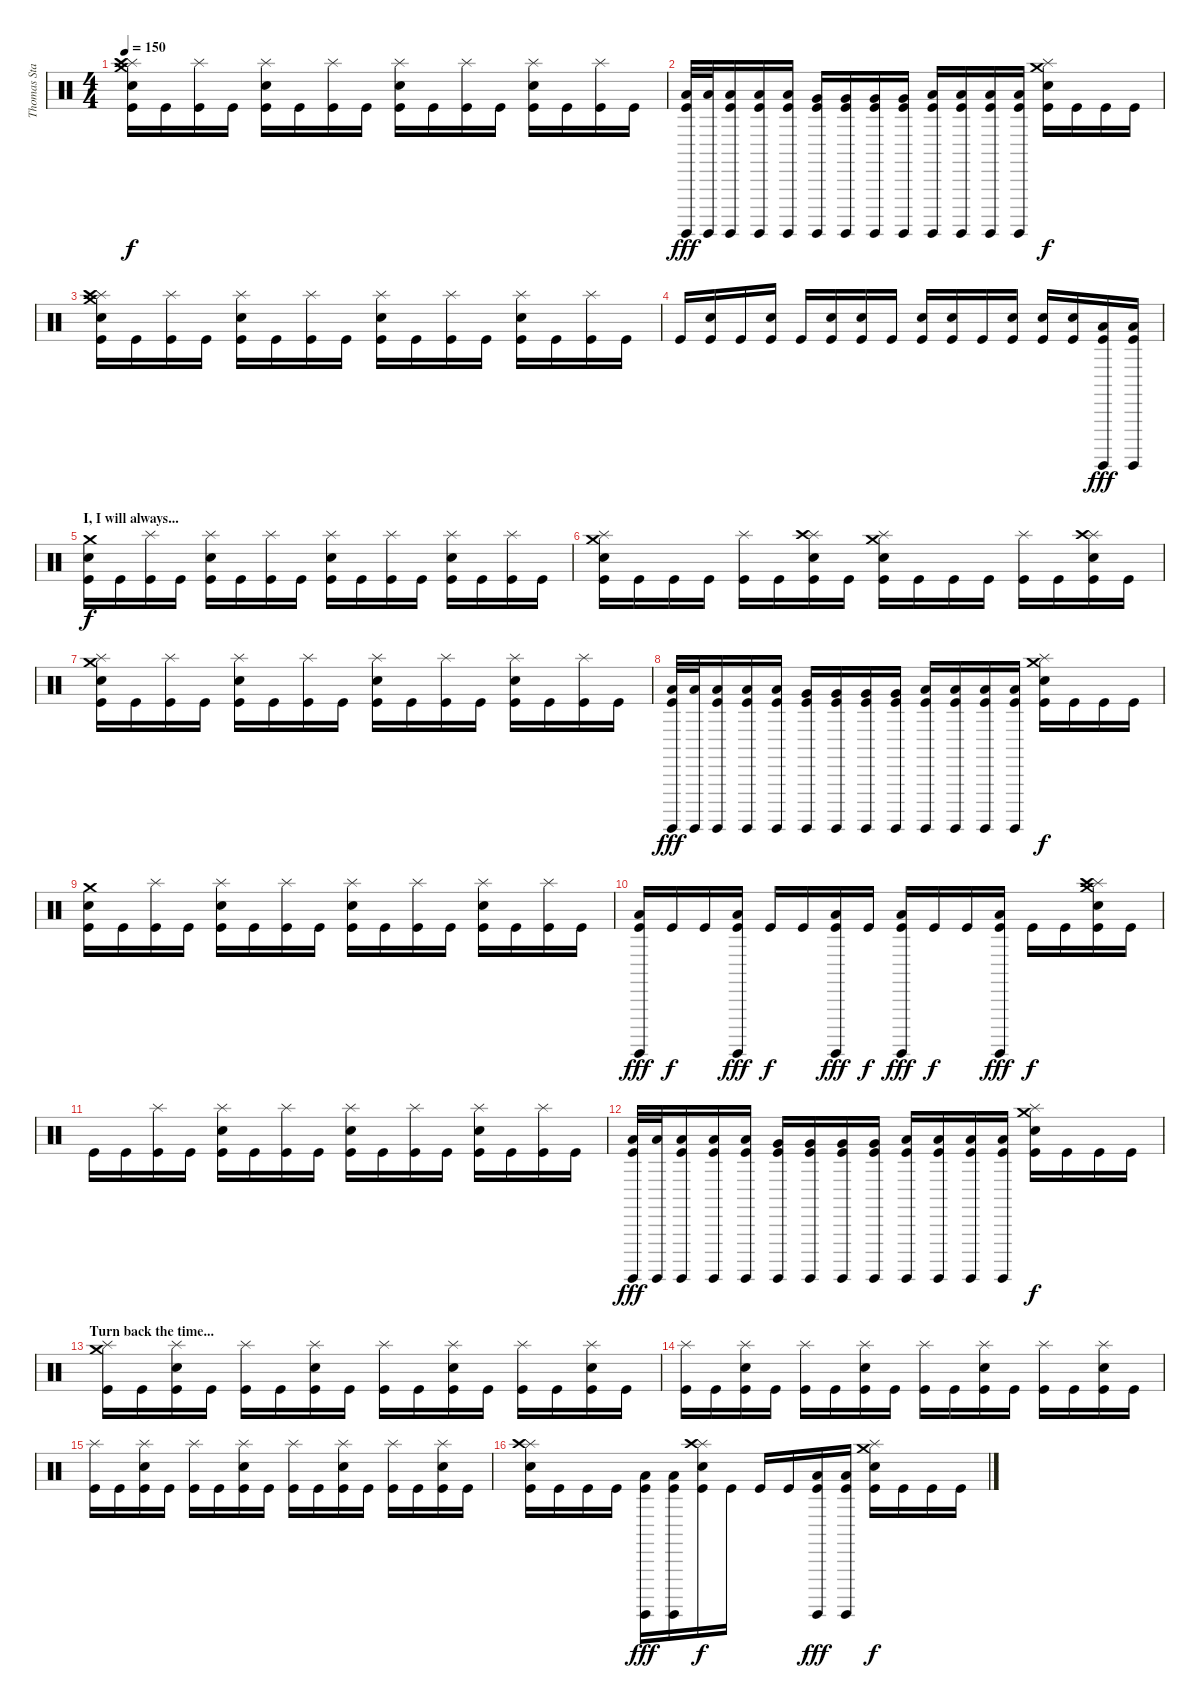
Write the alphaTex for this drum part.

\track ("Thomas Stauch" "Thomas Sta") {instrument percussion}
\staff {score}
\articulation defaults
\ts (4 4)
\tempo 150
\clef neutral
\ks c
("Crash medium (hit)" "Splash (hit)" "Crash high (hit)" "Electric Snare (hit)" "Kick (hit)").16{dy f} "Kick (hit)".16 ("Splash (hit)" "Kick (hit)").16 "Kick (hit)".16 ("Splash (hit)" "Electric Snare (hit)" "Kick (hit)").16 "Kick (hit)".16 ("Splash (hit)" "Kick (hit)").16 "Kick (hit)".16 ("Splash (hit)" "Electric Snare (hit)" "Kick (hit)").16 "Kick (hit)".16 ("Splash (hit)" "Kick (hit)").16 "Kick (hit)".16 ("Splash (hit)" "Electric Snare (hit)" "Kick (hit)").16 "Kick (hit)".16 ("Splash (hit)" "Kick (hit)").16 "Kick (hit)".16 |
("Surdo (hit)" "Low Tom (hit)" "Kick (hit)").32{dy fff} ("Surdo (hit)" "Low Tom (hit)").32 ("Surdo (hit)" "Low Tom (hit)" "Kick (hit)").16 ("Surdo (hit)" "Low Tom (hit)" "Kick (hit)").16 ("Surdo (hit)" "Low Tom (hit)" "Kick (hit)").16 ("Surdo (hit)" "Very Low Tom (hit)" "Kick (hit)").16 ("Surdo (hit)" "Very Low Tom (hit)" "Kick (hit)").16 ("Surdo (hit)" "Very Low Tom (hit)" "Kick (hit)").16 ("Surdo (hit)" "Very Low Tom (hit)" "Kick (hit)").16 ("Surdo (hit)" "Low Floor Tom (hit)" "Kick (hit)").16 ("Surdo (hit)" "Low Floor Tom (hit)" "Kick (hit)").16 ("Surdo (hit)" "Low Floor Tom (hit)" "Kick (hit)").16 ("Surdo (hit)" "Low Floor Tom (hit)" "Kick (hit)").16 ("Crash medium (hit)" "Splash (hit)" "Electric Snare (hit)" "Kick (hit)").16{dy f} "Kick (hit)".16 "Kick (hit)".16 "Kick (hit)".16 |
("Crash medium (hit)" "Splash (hit)" "Crash high (hit)" "Electric Snare (hit)" "Kick (hit)").16 "Kick (hit)".16 ("Splash (hit)" "Kick (hit)").16 "Kick (hit)".16 ("Splash (hit)" "Electric Snare (hit)" "Kick (hit)").16 "Kick (hit)".16 ("Splash (hit)" "Kick (hit)").16 "Kick (hit)".16 ("Splash (hit)" "Electric Snare (hit)" "Kick (hit)").16 "Kick (hit)".16 ("Splash (hit)" "Kick (hit)").16 "Kick (hit)".16 ("Splash (hit)" "Electric Snare (hit)" "Kick (hit)").16 "Kick (hit)".16 ("Splash (hit)" "Kick (hit)").16 "Kick (hit)".16 |
"Kick (hit)".16 ("Electric Snare (hit)" "Kick (hit)").16 "Kick (hit)".16 ("Electric Snare (hit)" "Kick (hit)").16 "Kick (hit)".16 ("Electric Snare (hit)" "Kick (hit)").16 ("Electric Snare (hit)" "Kick (hit)").16 "Kick (hit)".16 ("Electric Snare (hit)" "Kick (hit)").16 ("Electric Snare (hit)" "Kick (hit)").16 "Kick (hit)".16 ("Electric Snare (hit)" "Kick (hit)").16 ("Electric Snare (hit)" "Kick (hit)").16 ("Electric Snare (hit)" "Kick (hit)").16 ("Surdo (hit)" "Low Floor Tom (hit)" "Kick (hit)").16{dy fff} ("Surdo (hit)" "Low Floor Tom (hit)" "Kick (hit)").16 |
\section ("" "I, I will always...")
("Crash medium (hit)" "Electric Snare (hit)" "Kick (hit)").16{dy f} "Kick (hit)".16 ("Splash (hit)" "Kick (hit)").16 "Kick (hit)".16 ("Splash (hit)" "Electric Snare (hit)" "Kick (hit)").16 "Kick (hit)".16 ("Splash (hit)" "Kick (hit)").16 "Kick (hit)".16 ("Splash (hit)" "Electric Snare (hit)" "Kick (hit)").16 "Kick (hit)".16 ("Splash (hit)" "Kick (hit)").16 "Kick (hit)".16 ("Splash (hit)" "Electric Snare (hit)" "Kick (hit)").16 "Kick (hit)".16 ("Splash (hit)" "Kick (hit)").16 "Kick (hit)".16 |
("Crash medium (hit)" "Splash (hit)" "Electric Snare (hit)" "Kick (hit)").16 "Kick (hit)".16 "Kick (hit)".16 "Kick (hit)".16 ("Splash (hit)" "Kick (hit)").16 "Kick (hit)".16 ("Splash (hit)" "Crash high (hit)" "Electric Snare (hit)" "Kick (hit)").16 "Kick (hit)".16 ("Crash medium (hit)" "Splash (hit)" "Electric Snare (hit)" "Kick (hit)").16 "Kick (hit)".16 "Kick (hit)".16 "Kick (hit)".16 ("Splash (hit)" "Kick (hit)").16 "Kick (hit)".16 ("Splash (hit)" "Crash high (hit)" "Electric Snare (hit)" "Kick (hit)").16 "Kick (hit)".16 |
("Crash medium (hit)" "Splash (hit)" "Electric Snare (hit)" "Kick (hit)").16 "Kick (hit)".16 ("Splash (hit)" "Kick (hit)").16 "Kick (hit)".16 ("Splash (hit)" "Electric Snare (hit)" "Kick (hit)").16 "Kick (hit)".16 ("Splash (hit)" "Kick (hit)").16 "Kick (hit)".16 ("Splash (hit)" "Electric Snare (hit)" "Kick (hit)").16 "Kick (hit)".16 ("Splash (hit)" "Kick (hit)").16 "Kick (hit)".16 ("Splash (hit)" "Electric Snare (hit)" "Kick (hit)").16 "Kick (hit)".16 ("Splash (hit)" "Kick (hit)").16 "Kick (hit)".16 |
("Surdo (hit)" "Low Tom (hit)" "Kick (hit)").32{dy fff} ("Surdo (hit)" "Low Tom (hit)").32 ("Surdo (hit)" "Low Tom (hit)" "Kick (hit)").16 ("Surdo (hit)" "Low Tom (hit)" "Kick (hit)").16 ("Surdo (hit)" "Low Tom (hit)" "Kick (hit)").16 ("Surdo (hit)" "Very Low Tom (hit)" "Kick (hit)").16 ("Surdo (hit)" "Very Low Tom (hit)" "Kick (hit)").16 ("Surdo (hit)" "Very Low Tom (hit)" "Kick (hit)").16 ("Surdo (hit)" "Very Low Tom (hit)" "Kick (hit)").16 ("Surdo (hit)" "Low Floor Tom (hit)" "Kick (hit)").16 ("Surdo (hit)" "Low Floor Tom (hit)" "Kick (hit)").16 ("Surdo (hit)" "Low Floor Tom (hit)" "Kick (hit)").16 ("Surdo (hit)" "Low Floor Tom (hit)" "Kick (hit)").16 ("Crash medium (hit)" "Splash (hit)" "Electric Snare (hit)" "Kick (hit)").16{dy f} "Kick (hit)".16 "Kick (hit)".16 "Kick (hit)".16 |
("Crash medium (hit)" "Electric Snare (hit)" "Kick (hit)").16 "Kick (hit)".16 ("Splash (hit)" "Kick (hit)").16 "Kick (hit)".16 ("Splash (hit)" "Electric Snare (hit)" "Kick (hit)").16 "Kick (hit)".16 ("Splash (hit)" "Kick (hit)").16 "Kick (hit)".16 ("Splash (hit)" "Electric Snare (hit)" "Kick (hit)").16 "Kick (hit)".16 ("Splash (hit)" "Kick (hit)").16 "Kick (hit)".16 ("Splash (hit)" "Electric Snare (hit)" "Kick (hit)").16 "Kick (hit)".16 ("Splash (hit)" "Kick (hit)").16 "Kick (hit)".16 |
("Surdo (hit)" "Low Floor Tom (hit)" "Kick (hit)").16{dy fff} "Kick (hit)".16{dy f} "Kick (hit)".16 ("Surdo (hit)" "Low Floor Tom (hit)" "Kick (hit)").16{dy fff} "Kick (hit)".16{dy f} "Kick (hit)".16 ("Surdo (hit)" "Low Floor Tom (hit)" "Kick (hit)").16{dy fff} "Kick (hit)".16{dy f} ("Surdo (hit)" "Low Floor Tom (hit)" "Kick (hit)").16{dy fff} "Kick (hit)".16{dy f} "Kick (hit)".16 ("Surdo (hit)" "Low Floor Tom (hit)" "Kick (hit)").16{dy fff} "Kick (hit)".16{dy f} "Kick (hit)".16 ("Crash medium (hit)" "Splash (hit)" "Crash high (hit)" "Electric Snare (hit)" "Kick (hit)").16 "Kick (hit)".16 |
"Kick (hit)".16 "Kick (hit)".16 ("Splash (hit)" "Kick (hit)").16 "Kick (hit)".16 ("Splash (hit)" "Electric Snare (hit)" "Kick (hit)").16 "Kick (hit)".16 ("Splash (hit)" "Kick (hit)").16 "Kick (hit)".16 ("Splash (hit)" "Electric Snare (hit)" "Kick (hit)").16 "Kick (hit)".16 ("Splash (hit)" "Kick (hit)").16 "Kick (hit)".16 ("Splash (hit)" "Electric Snare (hit)" "Kick (hit)").16 "Kick (hit)".16 ("Splash (hit)" "Kick (hit)").16 "Kick (hit)".16 |
("Surdo (hit)" "Low Tom (hit)" "Kick (hit)").32{dy fff} ("Surdo (hit)" "Low Tom (hit)").32 ("Surdo (hit)" "Low Tom (hit)" "Kick (hit)").16 ("Surdo (hit)" "Low Tom (hit)" "Kick (hit)").16 ("Surdo (hit)" "Low Tom (hit)" "Kick (hit)").16 ("Surdo (hit)" "Very Low Tom (hit)" "Kick (hit)").16 ("Surdo (hit)" "Very Low Tom (hit)" "Kick (hit)").16 ("Surdo (hit)" "Very Low Tom (hit)" "Kick (hit)").16 ("Surdo (hit)" "Very Low Tom (hit)" "Kick (hit)").16 ("Surdo (hit)" "Low Floor Tom (hit)" "Kick (hit)").16 ("Surdo (hit)" "Low Floor Tom (hit)" "Kick (hit)").16 ("Surdo (hit)" "Low Floor Tom (hit)" "Kick (hit)").16 ("Surdo (hit)" "Low Floor Tom (hit)" "Kick (hit)").16 ("Crash medium (hit)" "Splash (hit)" "Electric Snare (hit)" "Kick (hit)").16{dy f} "Kick (hit)".16 "Kick (hit)".16 "Kick (hit)".16 |
\section ("" "Turn back the time...")
("Crash medium (hit)" "Splash (hit)" "Kick (hit)").16 "Kick (hit)".16 ("Splash (hit)" "Electric Snare (hit)" "Kick (hit)").16 "Kick (hit)".16 ("Splash (hit)" "Kick (hit)").16 "Kick (hit)".16 ("Splash (hit)" "Electric Snare (hit)" "Kick (hit)").16 "Kick (hit)".16 ("Splash (hit)" "Kick (hit)").16 "Kick (hit)".16 ("Splash (hit)" "Electric Snare (hit)" "Kick (hit)").16 "Kick (hit)".16 ("Splash (hit)" "Kick (hit)").16 "Kick (hit)".16 ("Splash (hit)" "Electric Snare (hit)" "Kick (hit)").16 "Kick (hit)".16 |
("Splash (hit)" "Kick (hit)").16 "Kick (hit)".16 ("Splash (hit)" "Electric Snare (hit)" "Kick (hit)").16 "Kick (hit)".16 ("Splash (hit)" "Kick (hit)").16 "Kick (hit)".16 ("Splash (hit)" "Electric Snare (hit)" "Kick (hit)").16 "Kick (hit)".16 ("Splash (hit)" "Kick (hit)").16 "Kick (hit)".16 ("Splash (hit)" "Electric Snare (hit)" "Kick (hit)").16 "Kick (hit)".16 ("Splash (hit)" "Kick (hit)").16 "Kick (hit)".16 ("Splash (hit)" "Electric Snare (hit)" "Kick (hit)").16 "Kick (hit)".16 |
("Splash (hit)" "Kick (hit)").16 "Kick (hit)".16 ("Splash (hit)" "Electric Snare (hit)" "Kick (hit)").16 "Kick (hit)".16 ("Splash (hit)" "Kick (hit)").16 "Kick (hit)".16 ("Splash (hit)" "Electric Snare (hit)" "Kick (hit)").16 "Kick (hit)".16 ("Splash (hit)" "Kick (hit)").16 "Kick (hit)".16 ("Splash (hit)" "Electric Snare (hit)" "Kick (hit)").16 "Kick (hit)".16 ("Splash (hit)" "Kick (hit)").16 "Kick (hit)".16 ("Splash (hit)" "Electric Snare (hit)" "Kick (hit)").16 "Kick (hit)".16 |
("Splash (hit)" "Crash high (hit)" "Electric Snare (hit)" "Kick (hit)").16 "Kick (hit)".16 "Kick (hit)".16 "Kick (hit)".16 ("Surdo (hit)" "Low Floor Tom (hit)" "Kick (hit)").16{dy fff} ("Surdo (hit)" "Low Floor Tom (hit)" "Kick (hit)").16 ("Splash (hit)" "Crash high (hit)" "Electric Snare (hit)" "Kick (hit)").16{dy f} "Kick (hit)".16 "Kick (hit)".16 "Kick (hit)".16 ("Surdo (hit)" "Low Floor Tom (hit)" "Kick (hit)").16{dy fff} ("Surdo (hit)" "Low Floor Tom (hit)" "Kick (hit)").16 ("Crash medium (hit)" "Splash (hit)" "Electric Snare (hit)" "Kick (hit)").16{dy f} "Kick (hit)".16 "Kick (hit)".16 "Kick (hit)".16
